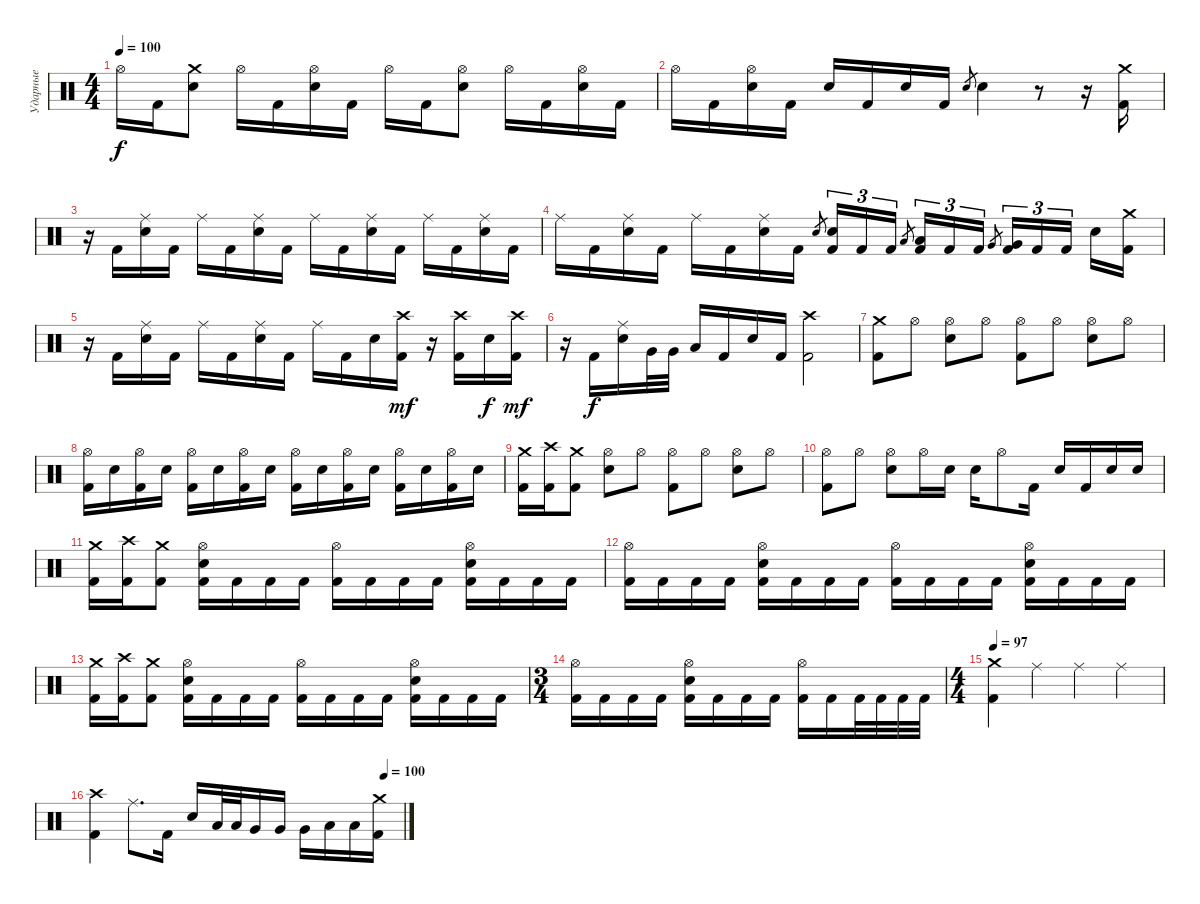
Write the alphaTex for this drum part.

\track ("Ударные" "Ударные") {instrument percussion}
\staff {score}
\articulation defaults
\ts (4 4)
\tempo 100
\clef neutral
\ks c "Hi-Hat (open)".16{dy f} "Kick (hit) 2".16
("Crash medium (hit)" "Snare (hit) 2").8 "Hi-Hat (open)".16 "Kick (hit) 2".16 ("Hi-Hat (open)" "Snare (hit) 2").16 "Kick (hit) 2".16 "Hi-Hat (open)".16 "Kick (hit) 2".16 ("Hi-Hat (open)" "Snare (hit) 2").8 "Hi-Hat (open)".16 "Kick (hit) 2".16 ("Hi-Hat (open)" "Snare (hit) 2").16 "Kick (hit) 2".16 |
"Hi-Hat (open)".16 "Kick (hit) 2".16 ("Hi-Hat (open)" "Snare (hit) 2").16 "Kick (hit) 2".16 "Snare (hit) 2".16 "Kick (hit) 2".16 "Snare (hit) 2".16 "Kick (hit) 2".16 "Snare (hit) 2".8{gr} "Snare (hit) 2".4 r.8 r.16 ("Crash medium (hit)" "Kick (hit) 2").16 |
r.16 "Kick (hit) 2".16 ("Ride (middle)" "Snare (hit) 2").16 "Kick (hit) 2".16 "Ride (middle)".16 "Kick (hit) 2".16 ("Ride (middle)" "Snare (hit) 2").16 "Kick (hit) 2".16 "Ride (middle)".16 "Kick (hit) 2".16 ("Ride (middle)" "Snare (hit) 2").16 "Kick (hit) 2".16 "Ride (middle)".16 "Kick (hit) 2".16 ("Ride (middle)" "Snare (hit) 2").16 "Kick (hit) 2".16 |
"Ride (middle)".16 "Kick (hit) 2".16 ("Ride (middle)" "Snare (hit) 2").16 "Kick (hit) 2".16 "Ride (middle)".16 "Kick (hit) 2".16 ("Ride (middle)" "Snare (hit) 2").16 "Kick (hit) 2".16 "Snare (hit) 2".8{gr} ("Kick (hit) 2" "Snare (hit) 2").16{tu (3 2)} "Kick (hit) 2".16{tu (3 2)} "Kick (hit) 2".16{tu (3 2)} "Low Tom (hit)".8{gr beam splitsecondary} ("Low Tom (hit)" "Kick (hit) 2").16{tu (3 2)} "Kick (hit) 2".16{tu (3 2)} "Kick (hit) 2".16{tu (3 2)} "Very Low Tom (hit)".8{gr} ("Very Low Tom (hit)" "Kick (hit) 2").16{tu (3 2)} "Kick (hit) 2".16{tu (3 2)} "Kick (hit) 2".16{tu (3 2) beam splitsecondary} "Snare (hit) 2".16 ("Crash medium (hit)" "Kick (hit) 2").16 |
r.16 "Kick (hit) 2".16 ("Ride (middle)" "Snare (hit) 2").16 "Kick (hit) 2".16 "Ride (middle)".16 "Kick (hit) 2".16 ("Ride (middle)" "Snare (hit) 2").16 "Kick (hit) 2".16 "Ride (middle)".16 "Kick (hit) 2".16 "Snare (hit) 2".16 ("Crash high (hit)" "Kick (hit) 2").16{dy mf} r.16 ("Crash high (hit)" "Kick (hit) 2").16 "Snare (hit) 2".16{dy f} ("Crash high (hit)" "Kick (hit) 2").16{dy mf} |
r.16 "Kick (hit) 2".16{dy f} ("Ride (middle)" "Snare (hit) 2").16 "Very Low Tom (hit)".32 "Very Low Tom (hit)".32 "Low Floor Tom (hit)".16 "Kick (hit) 2".16 "Snare (hit) 2".16 "Kick (hit) 2".16 ("Crash high (hit)" "Kick (hit) 2").2 |
("Crash medium (hit)" "Kick (hit) 2").8 "Hi-Hat (open)".8 ("Hi-Hat (open)" "Snare (hit) 2").8 "Hi-Hat (open)".8 ("Hi-Hat (open)" "Kick (hit) 2").8 "Hi-Hat (open)".8 ("Hi-Hat (open)" "Snare (hit) 2").8 "Hi-Hat (open)".8 |
("Hi-Hat (open)" "Kick (hit) 2").16 "Snare (hit) 2".16 ("Hi-Hat (open)" "Kick (hit) 2").16 "Snare (hit) 2".16 ("Hi-Hat (open)" "Kick (hit) 2").16 "Snare (hit) 2".16 ("Hi-Hat (open)" "Kick (hit) 2").16 "Snare (hit) 2".16 ("Hi-Hat (open)" "Kick (hit) 2").16 "Snare (hit) 2".16 ("Hi-Hat (open)" "Kick (hit) 2").16 "Snare (hit) 2".16 ("Hi-Hat (open)" "Kick (hit) 2").16 "Snare (hit) 2".16 ("Hi-Hat (open)" "Kick (hit) 2").16 "Snare (hit) 2".16 |
("Crash medium (hit)" "Kick (hit) 2").16 ("Crash high (hit)" "Kick (hit) 2").16 ("Crash medium (hit)" "Kick (hit) 2").8 ("Hi-Hat (open)" "Snare (hit) 2").8 "Hi-Hat (open)".8 ("Hi-Hat (open)" "Kick (hit) 2").8 "Hi-Hat (open)".8 ("Hi-Hat (open)" "Snare (hit) 2").8 "Hi-Hat (open)".8 |
("Hi-Hat (open)" "Kick (hit) 2").8 "Hi-Hat (open)".8 ("Hi-Hat (open)" "Snare (hit) 2").8 "Hi-Hat (open)".16 "Snare (hit) 2".16 "Snare (hit) 2".16 "Hi-Hat (open)".8 "Kick (hit) 2".16 "Snare (hit) 2".16 "Kick (hit) 2".16 "Snare (hit) 2".16 "Snare (hit) 2".16 |
("Crash medium (hit)" "Kick (hit) 2").16 ("Crash high (hit)" "Kick (hit) 2").16 ("Crash medium (hit)" "Kick (hit) 2").8 ("Hi-Hat (open)" "Kick (hit) 2" "Snare (hit) 2").16 "Kick (hit) 2".16 "Kick (hit) 2".16 "Kick (hit) 2".16 ("Hi-Hat (open)" "Kick (hit) 2").16 "Kick (hit) 2".16 "Kick (hit) 2".16 "Kick (hit) 2".16 ("Hi-Hat (open)" "Kick (hit) 2" "Snare (hit) 2").16 "Kick (hit) 2".16 "Kick (hit) 2".16 "Kick (hit) 2".16 |
("Hi-Hat (open)" "Kick (hit) 2").16 "Kick (hit) 2".16 "Kick (hit) 2".16 "Kick (hit) 2".16 ("Hi-Hat (open)" "Kick (hit) 2" "Snare (hit) 2").16 "Kick (hit) 2".16 "Kick (hit) 2".16 "Kick (hit) 2".16 ("Hi-Hat (open)" "Kick (hit) 2").16 "Kick (hit) 2".16 "Kick (hit) 2".16 "Kick (hit) 2".16 ("Hi-Hat (open)" "Kick (hit) 2" "Snare (hit) 2").16 "Kick (hit) 2".16 "Kick (hit) 2".16 "Kick (hit) 2".16 |
("Crash medium (hit)" "Kick (hit) 2").16 ("Crash high (hit)" "Kick (hit) 2").16 ("Crash medium (hit)" "Kick (hit) 2").8 ("Hi-Hat (open)" "Kick (hit) 2" "Snare (hit) 2").16 "Kick (hit) 2".16 "Kick (hit) 2".16 "Kick (hit) 2".16 ("Hi-Hat (open)" "Kick (hit) 2").16 "Kick (hit) 2".16 "Kick (hit) 2".16 "Kick (hit) 2".16 ("Hi-Hat (open)" "Kick (hit) 2" "Snare (hit) 2").16 "Kick (hit) 2".16 "Kick (hit) 2".16 "Kick (hit) 2".16 |
\ts (3 4)
("Hi-Hat (open)" "Kick (hit) 2").16 "Kick (hit) 2".16 "Kick (hit) 2".16 "Kick (hit) 2".16 ("Hi-Hat (open)" "Kick (hit) 2" "Snare (hit) 2").16 "Kick (hit) 2".16 "Kick (hit) 2".16 "Kick (hit) 2".16 ("Hi-Hat (open)" "Kick (hit) 2").16 "Kick (hit) 2".16 "Kick (hit) 2".32 "Kick (hit) 2".32 "Kick (hit) 2".32 "Kick (hit) 2".32 |
\ts (4 4)
\tempo 97
("Crash medium (hit)" "Kick (hit) 2").4 "Ride (middle)".4 "Ride (middle)".4 "Ride (middle)".4 |
\tempo (100 0.9375)
("Crash high (hit)" "Kick (hit) 2").4 "Ride (middle)".8{d} "Kick (hit) 2".16 "Snare (hit) 2".16 "Low Tom (hit)".32 "Low Tom (hit)".32 "Very Low Tom (hit)".16 "Very Low Tom (hit)".16 "Very Low Tom (hit)".16 "Low Floor Tom (hit)".16 "Low Floor Tom (hit)".16 ("Crash medium (hit)" "Kick (hit) 2").16
